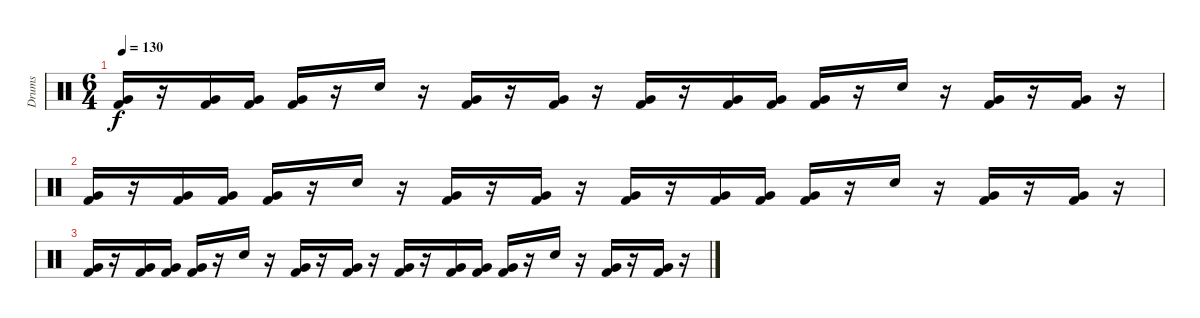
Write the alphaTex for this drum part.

\track ("Drums" "Drums") {instrument percussion}
\staff {score}
\articulation defaults
\ts (6 4)
\tempo 130
\clef neutral
\ks c
("Very Low Tom (hit)" "Kick (hit) 2").16{dy f} r.16 ("Very Low Tom (hit)" "Kick (hit) 2").16 ("Very Low Tom (hit)" "Kick (hit) 2").16 ("Very Low Tom (hit)" "Kick (hit) 2").16 r.16 "Electric Snare (hit)".16 r.16 ("Very Low Tom (hit)" "Kick (hit) 2").16 r.16 ("Very Low Tom (hit)" "Kick (hit) 2").16 r.16 ("Very Low Tom (hit)" "Kick (hit) 2").16 r.16 ("Very Low Tom (hit)" "Kick (hit) 2").16 ("Very Low Tom (hit)" "Kick (hit) 2").16 ("Very Low Tom (hit)" "Kick (hit) 2").16 r.16 "Electric Snare (hit)".16 r.16 ("Very Low Tom (hit)" "Kick (hit) 2").16 r.16 ("Very Low Tom (hit)" "Kick (hit) 2").16 r.16 |
("Very Low Tom (hit)" "Kick (hit) 2").16 r.16 ("Very Low Tom (hit)" "Kick (hit) 2").16 ("Very Low Tom (hit)" "Kick (hit) 2").16 ("Very Low Tom (hit)" "Kick (hit) 2").16 r.16 "Electric Snare (hit)".16 r.16 ("Very Low Tom (hit)" "Kick (hit) 2").16 r.16 ("Very Low Tom (hit)" "Kick (hit) 2").16 r.16 ("Very Low Tom (hit)" "Kick (hit) 2").16 r.16 ("Very Low Tom (hit)" "Kick (hit) 2").16 ("Very Low Tom (hit)" "Kick (hit) 2").16 ("Very Low Tom (hit)" "Kick (hit) 2").16 r.16 "Electric Snare (hit)".16 r.16 ("Very Low Tom (hit)" "Kick (hit) 2").16 r.16 ("Very Low Tom (hit)" "Kick (hit) 2").16 r.16 |
("Very Low Tom (hit)" "Kick (hit) 2").16 r.16 ("Very Low Tom (hit)" "Kick (hit) 2").16 ("Very Low Tom (hit)" "Kick (hit) 2").16 ("Very Low Tom (hit)" "Kick (hit) 2").16 r.16 "Electric Snare (hit)".16 r.16 ("Very Low Tom (hit)" "Kick (hit) 2").16 r.16 ("Very Low Tom (hit)" "Kick (hit) 2").16 r.16 ("Very Low Tom (hit)" "Kick (hit) 2").16 r.16 ("Very Low Tom (hit)" "Kick (hit) 2").16 ("Very Low Tom (hit)" "Kick (hit) 2").16 ("Very Low Tom (hit)" "Kick (hit) 2").16 r.16 "Electric Snare (hit)".16 r.16 ("Very Low Tom (hit)" "Kick (hit) 2").16 r.16 ("Very Low Tom (hit)" "Kick (hit) 2").16 r.16
